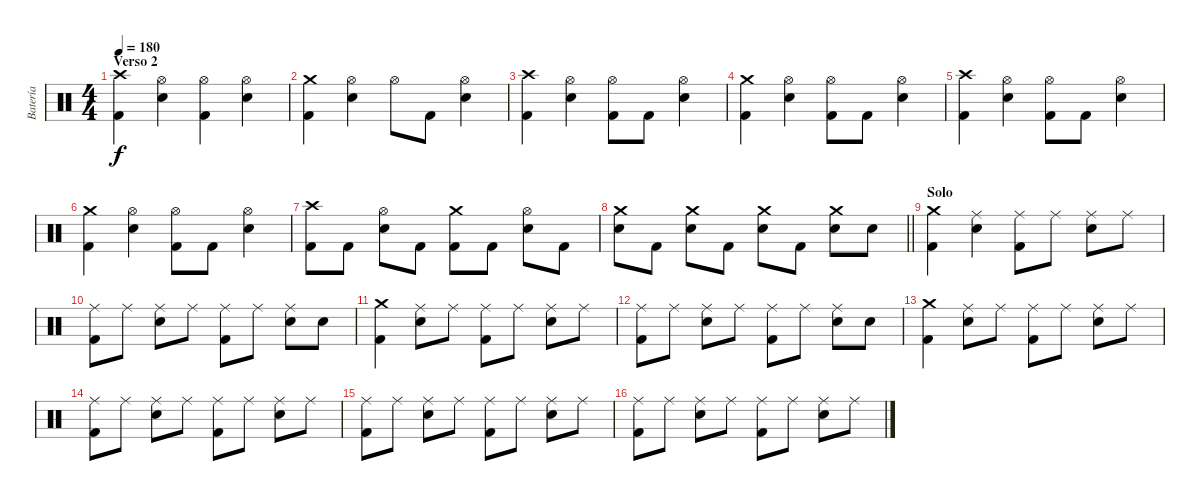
\track ("Batería" "Batería") {instrument percussion}
\staff {score}
\articulation defaults
\ts (4 4)
\section ("" "Verso 2")
\tempo 180
\clef neutral
\ks c
("Crash high (hit)" "Kick (hit) 2").4{dy f} ("Hi-Hat (open)" "Snare (hit) 2").4 ("Hi-Hat (open)" "Kick (hit) 2").4 ("Hi-Hat (open)" "Snare (hit) 2").4 |
("Crash medium (hit)" "Kick (hit) 2").4 ("Hi-Hat (open)" "Snare (hit) 2").4 "Hi-Hat (open)".8 "Kick (hit) 2".8 ("Hi-Hat (open)" "Snare (hit) 2").4 |
("Crash high (hit)" "Kick (hit) 2").4 ("Hi-Hat (open)" "Snare (hit) 2").4 ("Hi-Hat (open)" "Kick (hit) 2").8 "Kick (hit) 2".8 ("Hi-Hat (open)" "Snare (hit) 2").4 |
("Crash medium (hit)" "Kick (hit) 2").4 ("Hi-Hat (open)" "Snare (hit) 2").4 ("Hi-Hat (open)" "Kick (hit) 2").8 "Kick (hit) 2".8 ("Hi-Hat (open)" "Snare (hit) 2").4 |
("Crash high (hit)" "Kick (hit) 2").4 ("Hi-Hat (open)" "Snare (hit) 2").4 ("Hi-Hat (open)" "Kick (hit) 2").8 "Kick (hit) 2".8 ("Hi-Hat (open)" "Snare (hit) 2").4 |
("Crash medium (hit)" "Kick (hit) 2").4 ("Hi-Hat (open)" "Snare (hit) 2").4 ("Hi-Hat (open)" "Kick (hit) 2").8 "Kick (hit) 2".8 ("Hi-Hat (open)" "Snare (hit) 2").4 |
("Crash high (hit)" "Kick (hit) 2").8 "Kick (hit) 2".8 ("Hi-Hat (open)" "Snare (hit) 2").8 "Kick (hit) 2".8 ("Crash medium (hit)" "Kick (hit) 2").8 "Kick (hit) 2".8 ("Hi-Hat (open)" "Snare (hit) 2").8 "Kick (hit) 2".8 |
\barLineRight lightlight
("Crash medium (hit)" "Snare (hit) 2").8 "Kick (hit) 2".8 ("Crash medium (hit)" "Snare (hit) 2").8 "Kick (hit) 2".8 ("Crash medium (hit)" "Snare (hit) 2").8 "Kick (hit) 2".8 ("Crash medium (hit)" "Snare (hit) 2").8 "Snare (hit) 2".8 |
\section ("" "Solo")
("Crash medium (hit)" "Kick (hit) 2").4 ("Ride (middle)" "Snare (hit) 2").4 ("Ride (middle)" "Kick (hit) 2").8 "Ride (middle)".8 ("Ride (middle)" "Snare (hit) 2").8 "Ride (middle)".8 |
("Ride (middle)" "Kick (hit) 2").8 "Ride (middle)".8 ("Ride (middle)" "Snare (hit) 2").8 "Ride (middle)".8 ("Ride (middle)" "Kick (hit) 2").8 "Ride (middle)".8 ("Ride (middle)" "Snare (hit) 2").8 "Snare (hit) 2".8 |
("Crash medium (hit)" "Kick (hit) 2").4 ("Ride (middle)" "Snare (hit) 2").8 "Ride (middle)".8 ("Ride (middle)" "Kick (hit) 2").8 "Ride (middle)".8 ("Ride (middle)" "Snare (hit) 2").8 "Ride (middle)".8 |
("Ride (middle)" "Kick (hit) 2").8 "Ride (middle)".8 ("Ride (middle)" "Snare (hit) 2").8 "Ride (middle)".8 ("Ride (middle)" "Kick (hit) 2").8 "Ride (middle)".8 ("Ride (middle)" "Snare (hit) 2").8 "Snare (hit) 2".8 |
("Crash medium (hit)" "Kick (hit) 2").4 ("Ride (middle)" "Snare (hit) 2").8 "Ride (middle)".8 ("Ride (middle)" "Kick (hit) 2").8 "Ride (middle)".8 ("Ride (middle)" "Snare (hit) 2").8 "Ride (middle)".8 |
("Ride (middle)" "Kick (hit) 2").8 "Ride (middle)".8 ("Ride (middle)" "Snare (hit) 2").8 "Ride (middle)".8 ("Ride (middle)" "Kick (hit) 2").8 "Ride (middle)".8 ("Ride (middle)" "Snare (hit) 2").8 "Ride (middle)".8 |
("Ride (middle)" "Kick (hit) 2").8 "Ride (middle)".8 ("Ride (middle)" "Snare (hit) 2").8 "Ride (middle)".8 ("Ride (middle)" "Kick (hit) 2").8 "Ride (middle)".8 ("Ride (middle)" "Snare (hit) 2").8 "Ride (middle)".8 |
("Ride (middle)" "Kick (hit) 2").8 "Ride (middle)".8 ("Ride (middle)" "Snare (hit) 2").8 "Ride (middle)".8 ("Ride (middle)" "Kick (hit) 2").8 "Ride (middle)".8 ("Ride (middle)" "Snare (hit) 2").8 "Ride (middle)".8
